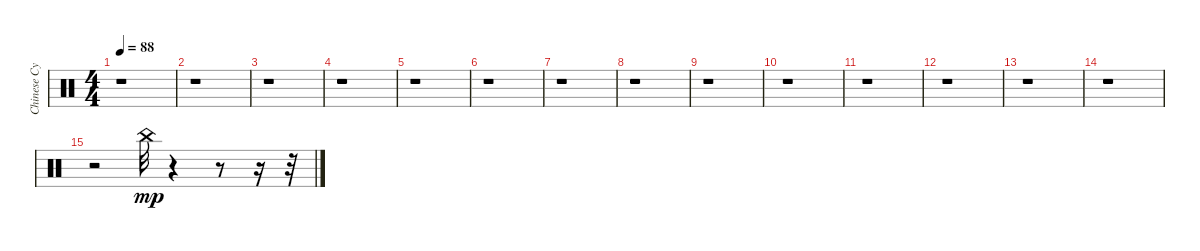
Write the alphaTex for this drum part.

\track ("Chinese Cymbal" "Chinese Cy") {instrument percussion}
\staff {score}
\articulation defaults
\ts (4 4)
\tempo 88
\clef neutral
\ks c
r.1{dy mp} |
r.1 |
r.1 |
r.1 |
r.1 |
r.1 |
r.1 |
r.1 |
r.1 |
r.1 |
r.1 |
r.1 |
r.1 |
r.1 |
r.2 "China (hit)".32 r.4 r.8 r.16 r.32
